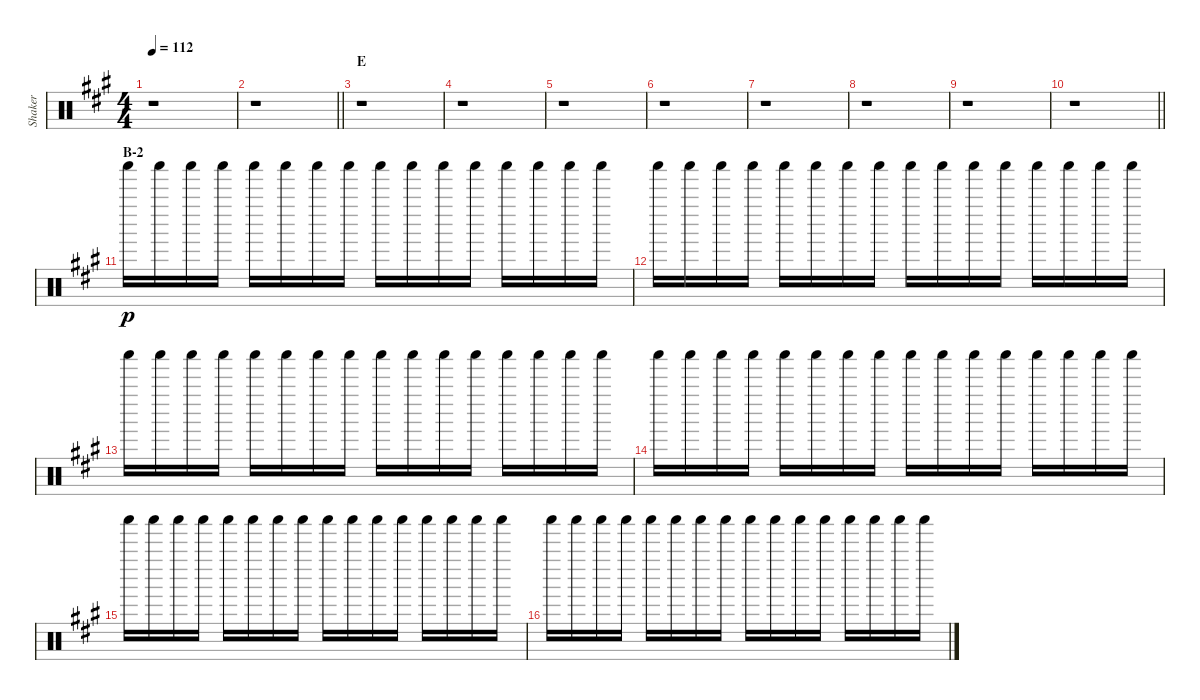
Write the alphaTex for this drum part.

\track ("Shaker" "Shaker") {instrument percussion}
\staff {score}
\articulation defaults
\ts (4 4)
\tempo 112
\clef neutral
\ks a
r.1{dy p} |
\barLineRight lightlight
r.1 |
\section ("" "E")
r.1 |
r.1 |
r.1 |
r.1 |
r.1 |
r.1 |
r.1 |
\barLineRight lightlight
r.1 |
\section ("" "B-2")
"Shaker (hit)".16 "Shaker (hit)".16 "Shaker (hit)".16 "Shaker (hit)".16 "Shaker (hit)".16 "Shaker (hit)".16 "Shaker (hit)".16 "Shaker (hit)".16 "Shaker (hit)".16 "Shaker (hit)".16 "Shaker (hit)".16 "Shaker (hit)".16 "Shaker (hit)".16 "Shaker (hit)".16 "Shaker (hit)".16 "Shaker (hit)".16 |
"Shaker (hit)".16 "Shaker (hit)".16 "Shaker (hit)".16 "Shaker (hit)".16 "Shaker (hit)".16 "Shaker (hit)".16 "Shaker (hit)".16 "Shaker (hit)".16 "Shaker (hit)".16 "Shaker (hit)".16 "Shaker (hit)".16 "Shaker (hit)".16 "Shaker (hit)".16 "Shaker (hit)".16 "Shaker (hit)".16 "Shaker (hit)".16 |
"Shaker (hit)".16 "Shaker (hit)".16 "Shaker (hit)".16 "Shaker (hit)".16 "Shaker (hit)".16 "Shaker (hit)".16 "Shaker (hit)".16 "Shaker (hit)".16 "Shaker (hit)".16 "Shaker (hit)".16 "Shaker (hit)".16 "Shaker (hit)".16 "Shaker (hit)".16 "Shaker (hit)".16 "Shaker (hit)".16 "Shaker (hit)".16 |
"Shaker (hit)".16 "Shaker (hit)".16 "Shaker (hit)".16 "Shaker (hit)".16 "Shaker (hit)".16 "Shaker (hit)".16 "Shaker (hit)".16 "Shaker (hit)".16 "Shaker (hit)".16 "Shaker (hit)".16 "Shaker (hit)".16 "Shaker (hit)".16 "Shaker (hit)".16 "Shaker (hit)".16 "Shaker (hit)".16 "Shaker (hit)".16 |
"Shaker (hit)".16 "Shaker (hit)".16 "Shaker (hit)".16 "Shaker (hit)".16 "Shaker (hit)".16 "Shaker (hit)".16 "Shaker (hit)".16 "Shaker (hit)".16 "Shaker (hit)".16 "Shaker (hit)".16 "Shaker (hit)".16 "Shaker (hit)".16 "Shaker (hit)".16 "Shaker (hit)".16 "Shaker (hit)".16 "Shaker (hit)".16 |
"Shaker (hit)".16 "Shaker (hit)".16 "Shaker (hit)".16 "Shaker (hit)".16 "Shaker (hit)".16 "Shaker (hit)".16 "Shaker (hit)".16 "Shaker (hit)".16 "Shaker (hit)".16 "Shaker (hit)".16 "Shaker (hit)".16 "Shaker (hit)".16 "Shaker (hit)".16 "Shaker (hit)".16 "Shaker (hit)".16 "Shaker (hit)".16
